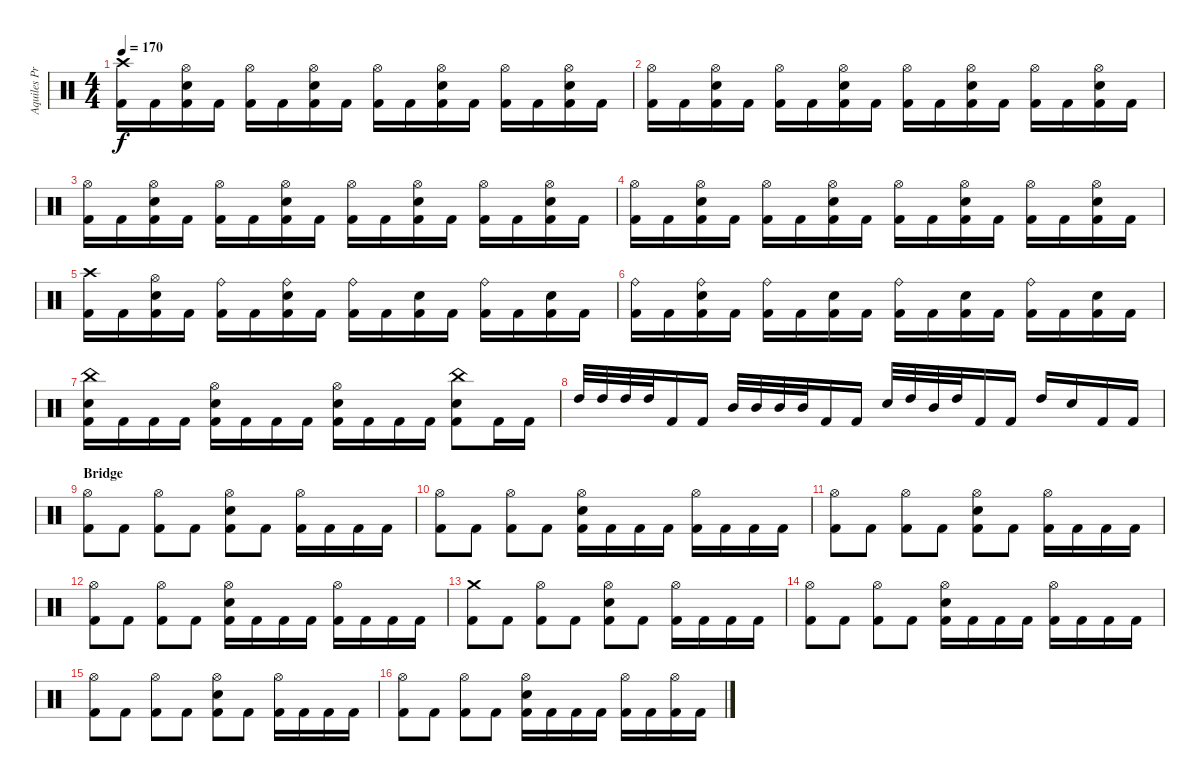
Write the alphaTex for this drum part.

\track ("Aquiles Priester" "Aquiles Pr") {instrument percussion}
\staff {score}
\articulation defaults
\ts (4 4)
\tempo 170
\clef neutral
\ks c
("Kick (hit) 2" "Crash high (hit)").16{dy f} "Kick (hit) 2".16 ("Kick (hit) 2" "Electric Snare (hit)" "Hi-Hat (open)").16 "Kick (hit) 2".16 ("Kick (hit) 2" "Hi-Hat (open)").16 "Kick (hit) 2".16 ("Kick (hit) 2" "Electric Snare (hit)" "Hi-Hat (open)").16 "Kick (hit) 2".16 ("Kick (hit) 2" "Hi-Hat (open)").16 "Kick (hit) 2".16 ("Kick (hit) 2" "Electric Snare (hit)" "Hi-Hat (open)").16 "Kick (hit) 2".16 ("Kick (hit) 2" "Hi-Hat (open)").16 "Kick (hit) 2".16 ("Kick (hit) 2" "Electric Snare (hit)" "Hi-Hat (open)").16 "Kick (hit) 2".16 |
("Kick (hit) 2" "Hi-Hat (open)").16 "Kick (hit) 2".16 ("Kick (hit) 2" "Electric Snare (hit)" "Hi-Hat (open)").16 "Kick (hit) 2".16 ("Kick (hit) 2" "Hi-Hat (open)").16 "Kick (hit) 2".16 ("Kick (hit) 2" "Electric Snare (hit)" "Hi-Hat (open)").16 "Kick (hit) 2".16 ("Kick (hit) 2" "Hi-Hat (open)").16 "Kick (hit) 2".16 ("Kick (hit) 2" "Electric Snare (hit)" "Hi-Hat (open)").16 "Kick (hit) 2".16 ("Kick (hit) 2" "Hi-Hat (open)").16 "Kick (hit) 2".16 ("Kick (hit) 2" "Electric Snare (hit)" "Hi-Hat (open)").16 "Kick (hit) 2".16 |
("Kick (hit) 2" "Hi-Hat (open)").16 "Kick (hit) 2".16 ("Kick (hit) 2" "Electric Snare (hit)" "Hi-Hat (open)").16 "Kick (hit) 2".16 ("Kick (hit) 2" "Hi-Hat (open)").16 "Kick (hit) 2".16 ("Kick (hit) 2" "Electric Snare (hit)" "Hi-Hat (open)").16 "Kick (hit) 2".16 ("Kick (hit) 2" "Hi-Hat (open)").16 "Kick (hit) 2".16 ("Kick (hit) 2" "Electric Snare (hit)" "Hi-Hat (open)").16 "Kick (hit) 2".16 ("Kick (hit) 2" "Hi-Hat (open)").16 "Kick (hit) 2".16 ("Kick (hit) 2" "Electric Snare (hit)" "Hi-Hat (open)").16 "Kick (hit) 2".16 |
("Kick (hit) 2" "Hi-Hat (open)").16 "Kick (hit) 2".16 ("Kick (hit) 2" "Electric Snare (hit)" "Hi-Hat (open)").16 "Kick (hit) 2".16 ("Kick (hit) 2" "Hi-Hat (open)").16 "Kick (hit) 2".16 ("Kick (hit) 2" "Electric Snare (hit)" "Hi-Hat (open)").16 "Kick (hit) 2".16 ("Kick (hit) 2" "Hi-Hat (open)").16 "Kick (hit) 2".16 ("Kick (hit) 2" "Electric Snare (hit)" "Hi-Hat (open)").16 "Kick (hit) 2".16 ("Kick (hit) 2" "Hi-Hat (open)").16 "Kick (hit) 2".16 ("Kick (hit) 2" "Electric Snare (hit)" "Hi-Hat (open)").16 "Kick (hit) 2".16 |
("Kick (hit) 2" "Crash high (hit)").16 "Kick (hit) 2".16 ("Kick (hit) 2" "Electric Snare (hit)" "Hi-Hat (open)").16 "Kick (hit) 2".16 ("Kick (hit) 2" "Ride (bell)").16 "Kick (hit) 2".16 ("Kick (hit) 2" "Electric Snare (hit)" "Ride (bell)").16 "Kick (hit) 2".16 ("Kick (hit) 2" "Ride (bell)").16 "Kick (hit) 2".16 ("Kick (hit) 2" "Electric Snare (hit)").16 "Kick (hit) 2".16 ("Kick (hit) 2" "Ride (bell)").16 "Kick (hit) 2".16 ("Kick (hit) 2" "Electric Snare (hit)").16 "Kick (hit) 2".16 |
("Kick (hit) 2" "Ride (bell)").16 "Kick (hit) 2".16 ("Kick (hit) 2" "Electric Snare (hit)" "Ride (bell)").16 "Kick (hit) 2".16 ("Kick (hit) 2" "Ride (bell)").16 "Kick (hit) 2".16 ("Kick (hit) 2" "Electric Snare (hit)").16 "Kick (hit) 2".16 ("Kick (hit) 2" "Ride (bell)").16 "Kick (hit) 2".16 ("Kick (hit) 2" "Electric Snare (hit)").16 "Kick (hit) 2".16 ("Kick (hit) 2" "Ride (bell)").16 "Kick (hit) 2".16 ("Kick (hit) 2" "Electric Snare (hit)").16 "Kick (hit) 2".16 |
("Kick (hit) 2" "Electric Snare (hit)" "China (hit)").16 "Kick (hit) 2".16 "Kick (hit) 2".16 "Kick (hit) 2".16 ("Kick (hit) 2" "Hi-Hat (open)" "Electric Snare (hit)").16 "Kick (hit) 2".16 "Kick (hit) 2".16 "Kick (hit) 2".16 ("Kick (hit) 2" "Electric Snare (hit)" "Hi-Hat (open)").16 "Kick (hit) 2".16 "Kick (hit) 2".16 "Kick (hit) 2".16 ("Kick (hit) 2" "China (hit)" "Electric Snare (hit)").8 "Kick (hit) 2".16 "Kick (hit) 2".16 |
"High Tom (hit)".32 "High Tom (hit)".32 "High Tom (hit)".32 "High Tom (hit)".32 "Kick (hit) 2".16 "Kick (hit) 2".16 "Mid Tom (hit)".32 "Mid Tom (hit)".32 "Mid Tom (hit)".32 "Mid Tom (hit)".32 "Kick (hit) 2".16 "Kick (hit) 2".16 "Electric Snare (hit)".32 "High Tom (hit)".32 "Mid Tom (hit)".32 "High Tom (hit)".32 "Kick (hit) 2".16 "Kick (hit) 2".16 "High Tom (hit)".16 "Electric Snare (hit)".16 "Kick (hit) 2".16 "Kick (hit) 2".16 |
\section ("" "Bridge")
("Hi-Hat (open)" "Kick (hit) 2").8 "Kick (hit) 2".8 ("Hi-Hat (open)" "Kick (hit) 2").8 "Kick (hit) 2".8 ("Electric Snare (hit)" "Kick (hit) 2" "Hi-Hat (open)").8 "Kick (hit) 2".8 ("Hi-Hat (open)" "Kick (hit) 2").16 "Kick (hit) 2".16 "Kick (hit) 2".16 "Kick (hit) 2".16 |
("Hi-Hat (open)" "Kick (hit) 2").8 "Kick (hit) 2".8 ("Hi-Hat (open)" "Kick (hit) 2").8 "Kick (hit) 2".8 ("Electric Snare (hit)" "Kick (hit) 2" "Hi-Hat (open)").16 "Kick (hit) 2".16 "Kick (hit) 2".16 "Kick (hit) 2".16 ("Hi-Hat (open)" "Kick (hit) 2").16 "Kick (hit) 2".16 "Kick (hit) 2".16 "Kick (hit) 2".16 |
("Hi-Hat (open)" "Kick (hit) 2").8 "Kick (hit) 2".8 ("Hi-Hat (open)" "Kick (hit) 2").8 "Kick (hit) 2".8 ("Electric Snare (hit)" "Kick (hit) 2" "Hi-Hat (open)").8 "Kick (hit) 2".8 ("Hi-Hat (open)" "Kick (hit) 2").16 "Kick (hit) 2".16 "Kick (hit) 2".16 "Kick (hit) 2".16 |
("Hi-Hat (open)" "Kick (hit) 2").8 "Kick (hit) 2".8 ("Hi-Hat (open)" "Kick (hit) 2").8 "Kick (hit) 2".8 ("Electric Snare (hit)" "Kick (hit) 2" "Hi-Hat (open)").16 "Kick (hit) 2".16 "Kick (hit) 2".16 "Kick (hit) 2".16 ("Hi-Hat (open)" "Kick (hit) 2").16 "Kick (hit) 2".16 "Kick (hit) 2".16 "Kick (hit) 2".16 |
("Crash medium (hit)" "Kick (hit) 2").8 "Kick (hit) 2".8 ("Hi-Hat (open)" "Kick (hit) 2").8 "Kick (hit) 2".8 ("Electric Snare (hit)" "Kick (hit) 2" "Hi-Hat (open)").8 "Kick (hit) 2".8 ("Hi-Hat (open)" "Kick (hit) 2").16 "Kick (hit) 2".16 "Kick (hit) 2".16 "Kick (hit) 2".16 |
("Hi-Hat (open)" "Kick (hit) 2").8 "Kick (hit) 2".8 ("Hi-Hat (open)" "Kick (hit) 2").8 "Kick (hit) 2".8 ("Electric Snare (hit)" "Kick (hit) 2" "Hi-Hat (open)").16 "Kick (hit) 2".16 "Kick (hit) 2".16 "Kick (hit) 2".16 ("Hi-Hat (open)" "Kick (hit) 2").16 "Kick (hit) 2".16 "Kick (hit) 2".16 "Kick (hit) 2".16 |
("Hi-Hat (open)" "Kick (hit) 2").8 "Kick (hit) 2".8 ("Hi-Hat (open)" "Kick (hit) 2").8 "Kick (hit) 2".8 ("Electric Snare (hit)" "Kick (hit) 2" "Hi-Hat (open)").8 "Kick (hit) 2".8 ("Hi-Hat (open)" "Kick (hit) 2").16 "Kick (hit) 2".16 "Kick (hit) 2".16 "Kick (hit) 2".16 |
("Hi-Hat (open)" "Kick (hit) 2").8 "Kick (hit) 2".8 ("Hi-Hat (open)" "Kick (hit) 2").8 "Kick (hit) 2".8 ("Electric Snare (hit)" "Kick (hit) 2" "Hi-Hat (open)").16 "Kick (hit) 2".16 "Kick (hit) 2".16 "Kick (hit) 2".16 ("Hi-Hat (open)" "Kick (hit) 2").16 "Kick (hit) 2".16 ("Hi-Hat (open)" "Kick (hit) 2").16 "Kick (hit) 2".16
